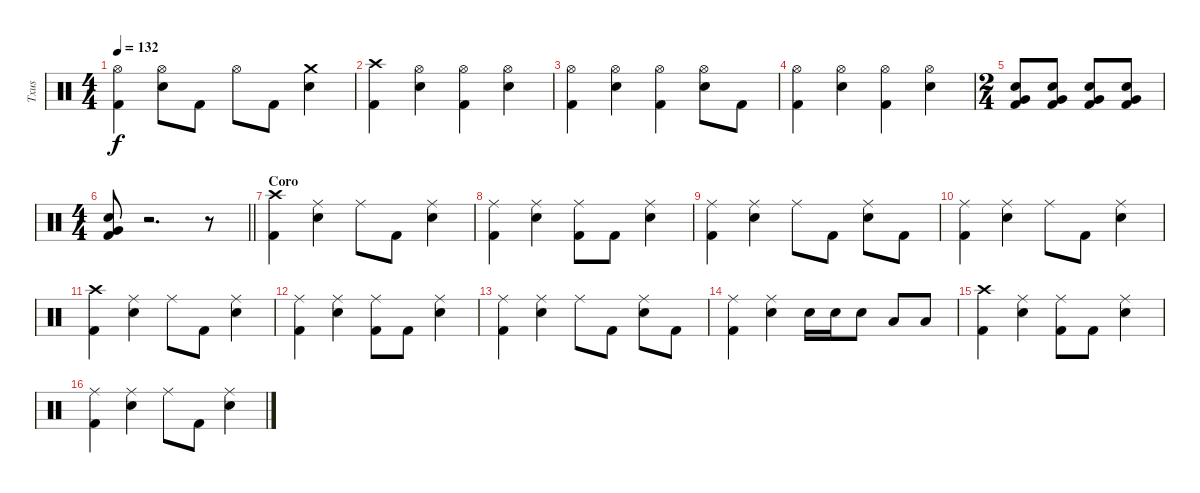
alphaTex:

\track ("Txus" "Txus") {instrument percussion}
\staff {score}
\articulation defaults
\ts (4 4)
\tempo 132
\clef neutral
\ks c
("Hi-Hat (open)" "Kick (hit) 2").4{dy f} ("Hi-Hat (open)" "Electric Snare (hit)").8 "Kick (hit) 2".8 "Hi-Hat (open)".8 "Kick (hit) 2".8 ("Crash medium (hit)" "Electric Snare (hit)").4 |
("Crash high (hit)" "Kick (hit) 2").4 ("Hi-Hat (open)" "Electric Snare (hit)").4 ("Hi-Hat (open)" "Kick (hit) 2").4 ("Hi-Hat (open)" "Electric Snare (hit)").4 |
("Hi-Hat (open)" "Kick (hit) 2").4 ("Hi-Hat (open)" "Electric Snare (hit)").4 ("Hi-Hat (open)" "Kick (hit) 2").4 ("Hi-Hat (open)" "Electric Snare (hit)").8 "Kick (hit) 2".8 |
("Hi-Hat (open)" "Kick (hit) 2").4 ("Hi-Hat (open)" "Electric Snare (hit)").4 ("Hi-Hat (open)" "Kick (hit) 2").4 ("Hi-Hat (open)" "Electric Snare (hit)").4 |
\ts (2 4)
("Electric Snare (hit)" "Very Low Tom (hit)" "Kick (hit) 2").8 ("Electric Snare (hit)" "Very Low Tom (hit)" "Kick (hit) 2").8 ("Electric Snare (hit)" "Very Low Tom (hit)" "Kick (hit) 2").8 ("Electric Snare (hit)" "Very Low Tom (hit)" "Kick (hit) 2").8 |
\ts (4 4)
\barLineRight lightlight
("Electric Snare (hit)" "Very Low Tom (hit)" "Kick (hit) 2").8 r.2{d} r.8 |
\section ("" "Coro")
("Crash high (hit)" "Kick (hit) 2").4 ("Ride (middle)" "Electric Snare (hit)").4 "Ride (middle)".8 "Kick (hit) 2".8 ("Ride (middle)" "Electric Snare (hit)").4 |
("Ride (middle)" "Kick (hit) 2").4 ("Ride (middle)" "Electric Snare (hit)").4 ("Ride (middle)" "Kick (hit) 2").8 "Kick (hit) 2".8 ("Ride (middle)" "Electric Snare (hit)").4 |
("Ride (middle)" "Kick (hit) 2").4 ("Ride (middle)" "Electric Snare (hit)").4 "Ride (middle)".8 "Kick (hit) 2".8 ("Ride (middle)" "Electric Snare (hit)").8 "Kick (hit) 2".8 |
("Ride (middle)" "Kick (hit) 2").4 ("Ride (middle)" "Electric Snare (hit)").4 "Ride (middle)".8 "Kick (hit) 2".8 ("Ride (middle)" "Electric Snare (hit)").4 |
("Crash high (hit)" "Kick (hit) 2").4 ("Ride (middle)" "Electric Snare (hit)").4 "Ride (middle)".8 "Kick (hit) 2".8 ("Ride (middle)" "Electric Snare (hit)").4 |
("Ride (middle)" "Kick (hit) 2").4 ("Ride (middle)" "Electric Snare (hit)").4 ("Ride (middle)" "Kick (hit) 2").8 "Kick (hit) 2".8 ("Ride (middle)" "Electric Snare (hit)").4 |
("Ride (middle)" "Kick (hit) 2").4 ("Ride (middle)" "Electric Snare (hit)").4 "Ride (middle)".8 "Kick (hit) 2".8 ("Ride (middle)" "Electric Snare (hit)").8 "Kick (hit) 2".8 |
("Ride (middle)" "Kick (hit) 2").4 ("Ride (middle)" "Electric Snare (hit)").4 "Electric Snare (hit)".16 "Electric Snare (hit)".16 "Electric Snare (hit)".8 "Low Tom (hit)".8 "Low Tom (hit)".8 |
("Crash high (hit)" "Kick (hit) 2").4 ("Ride (middle)" "Electric Snare (hit)").4 ("Ride (middle)" "Kick (hit) 2").8 "Kick (hit) 2".8 ("Ride (middle)" "Electric Snare (hit)").4 |
("Ride (middle)" "Kick (hit) 2").4 ("Ride (middle)" "Electric Snare (hit)").4 "Ride (middle)".8 "Kick (hit) 2".8 ("Ride (middle)" "Electric Snare (hit)").4
